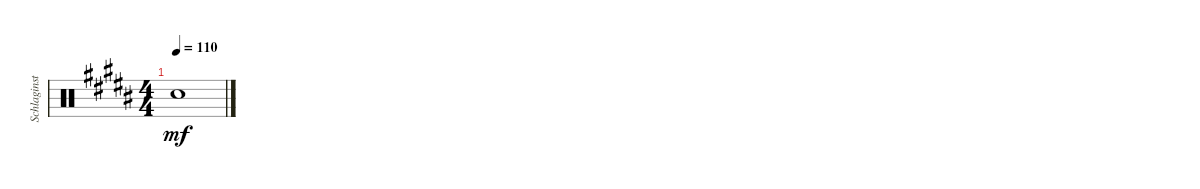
\track ("Schlaginstrumente - Auswahl" "Schlaginst") {instrument percussion}
\staff {score}
\articulation defaults
\ts (4 4)
\tempo 110
\clef neutral
\ks b "Snare (hit) 2".1{dy mf}
